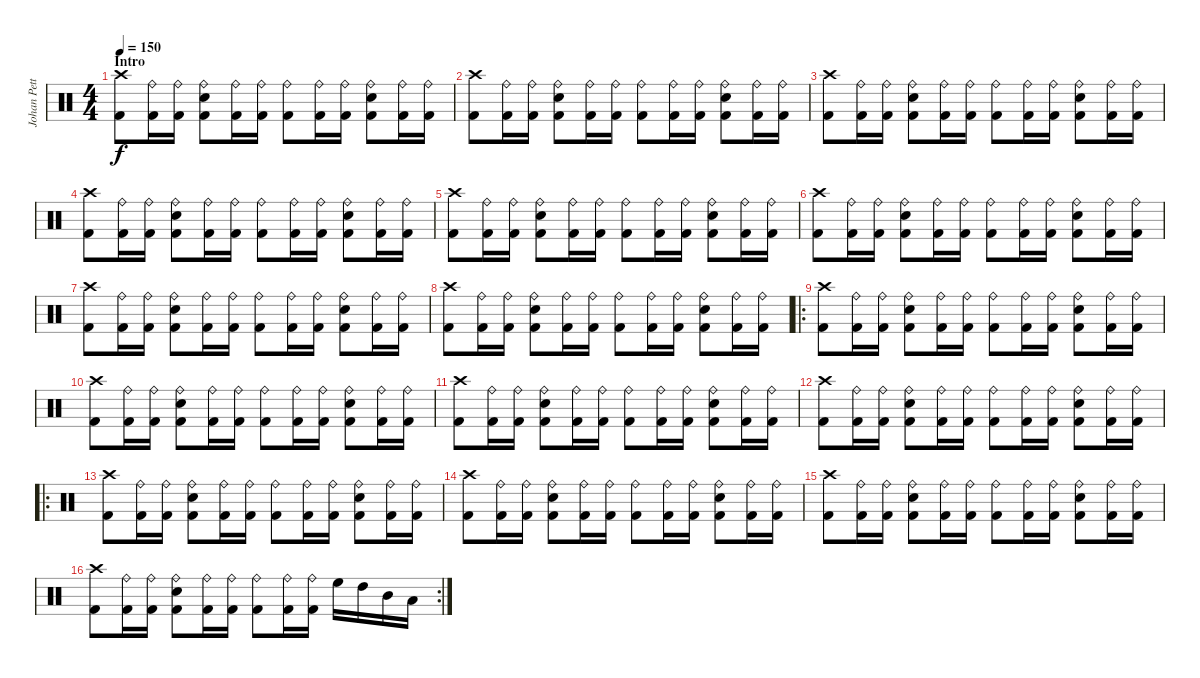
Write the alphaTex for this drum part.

\track ("Johan Petterson" "Johan Pett") {instrument percussion}
\staff {score}
\articulation defaults
\ts (4 4)
\section ("" "Intro")
\tempo 150
\clef neutral
\ks c
("Crash high (hit)" "Kick (hit) 2").8{dy f} ("Ride (bell)" "Kick (hit) 2").16 ("Ride (bell)" "Kick (hit) 2").16 ("Ride (bell)" "Snare (hit) 2" "Kick (hit) 2").8 ("Ride (bell)" "Kick (hit) 2").16 ("Ride (bell)" "Kick (hit) 2").16 ("Ride (bell)" "Kick (hit) 2").8 ("Ride (bell)" "Kick (hit) 2").16 ("Ride (bell)" "Kick (hit) 2").16 ("Ride (bell)" "Snare (hit) 2" "Kick (hit) 2").8 ("Ride (bell)" "Kick (hit) 2").16 ("Ride (bell)" "Kick (hit) 2").16 |
("Crash high (hit)" "Kick (hit) 2").8 ("Ride (bell)" "Kick (hit) 2").16 ("Ride (bell)" "Kick (hit) 2").16 ("Ride (bell)" "Snare (hit) 2" "Kick (hit) 2").8 ("Ride (bell)" "Kick (hit) 2").16 ("Ride (bell)" "Kick (hit) 2").16 ("Ride (bell)" "Kick (hit) 2").8 ("Ride (bell)" "Kick (hit) 2").16 ("Ride (bell)" "Kick (hit) 2").16 ("Ride (bell)" "Snare (hit) 2" "Kick (hit) 2").8 ("Ride (bell)" "Kick (hit) 2").16 ("Ride (bell)" "Kick (hit) 2").16 |
("Crash high (hit)" "Kick (hit) 2").8 ("Ride (bell)" "Kick (hit) 2").16 ("Ride (bell)" "Kick (hit) 2").16 ("Ride (bell)" "Snare (hit) 2" "Kick (hit) 2").8 ("Ride (bell)" "Kick (hit) 2").16 ("Ride (bell)" "Kick (hit) 2").16 ("Ride (bell)" "Kick (hit) 2").8 ("Ride (bell)" "Kick (hit) 2").16 ("Ride (bell)" "Kick (hit) 2").16 ("Ride (bell)" "Snare (hit) 2" "Kick (hit) 2").8 ("Ride (bell)" "Kick (hit) 2").16 ("Ride (bell)" "Kick (hit) 2").16 |
("Crash high (hit)" "Kick (hit) 2").8 ("Ride (bell)" "Kick (hit) 2").16 ("Ride (bell)" "Kick (hit) 2").16 ("Ride (bell)" "Snare (hit) 2" "Kick (hit) 2").8 ("Ride (bell)" "Kick (hit) 2").16 ("Ride (bell)" "Kick (hit) 2").16 ("Ride (bell)" "Kick (hit) 2").8 ("Ride (bell)" "Kick (hit) 2").16 ("Ride (bell)" "Kick (hit) 2").16 ("Ride (bell)" "Snare (hit) 2" "Kick (hit) 2").8 ("Ride (bell)" "Kick (hit) 2").16 ("Ride (bell)" "Kick (hit) 2").16 |
("Crash high (hit)" "Kick (hit) 2").8 ("Ride (bell)" "Kick (hit) 2").16 ("Ride (bell)" "Kick (hit) 2").16 ("Ride (bell)" "Snare (hit) 2" "Kick (hit) 2").8 ("Ride (bell)" "Kick (hit) 2").16 ("Ride (bell)" "Kick (hit) 2").16 ("Ride (bell)" "Kick (hit) 2").8 ("Ride (bell)" "Kick (hit) 2").16 ("Ride (bell)" "Kick (hit) 2").16 ("Ride (bell)" "Snare (hit) 2" "Kick (hit) 2").8 ("Ride (bell)" "Kick (hit) 2").16 ("Ride (bell)" "Kick (hit) 2").16 |
("Crash high (hit)" "Kick (hit) 2").8 ("Ride (bell)" "Kick (hit) 2").16 ("Ride (bell)" "Kick (hit) 2").16 ("Ride (bell)" "Snare (hit) 2" "Kick (hit) 2").8 ("Ride (bell)" "Kick (hit) 2").16 ("Ride (bell)" "Kick (hit) 2").16 ("Ride (bell)" "Kick (hit) 2").8 ("Ride (bell)" "Kick (hit) 2").16 ("Ride (bell)" "Kick (hit) 2").16 ("Ride (bell)" "Snare (hit) 2" "Kick (hit) 2").8 ("Ride (bell)" "Kick (hit) 2").16 ("Ride (bell)" "Kick (hit) 2").16 |
("Crash high (hit)" "Kick (hit) 2").8 ("Ride (bell)" "Kick (hit) 2").16 ("Ride (bell)" "Kick (hit) 2").16 ("Ride (bell)" "Snare (hit) 2" "Kick (hit) 2").8 ("Ride (bell)" "Kick (hit) 2").16 ("Ride (bell)" "Kick (hit) 2").16 ("Ride (bell)" "Kick (hit) 2").8 ("Ride (bell)" "Kick (hit) 2").16 ("Ride (bell)" "Kick (hit) 2").16 ("Ride (bell)" "Snare (hit) 2" "Kick (hit) 2").8 ("Ride (bell)" "Kick (hit) 2").16 ("Ride (bell)" "Kick (hit) 2").16 |
("Crash high (hit)" "Kick (hit) 2").8 ("Ride (bell)" "Kick (hit) 2").16 ("Ride (bell)" "Kick (hit) 2").16 ("Ride (bell)" "Snare (hit) 2" "Kick (hit) 2").8 ("Ride (bell)" "Kick (hit) 2").16 ("Ride (bell)" "Kick (hit) 2").16 ("Ride (bell)" "Kick (hit) 2").8 ("Ride (bell)" "Kick (hit) 2").16 ("Ride (bell)" "Kick (hit) 2").16 ("Ride (bell)" "Snare (hit) 2" "Kick (hit) 2").8 ("Ride (bell)" "Kick (hit) 2").16 ("Ride (bell)" "Kick (hit) 2").16 |
\ro
("Crash high (hit)" "Kick (hit) 2").8 ("Ride (bell)" "Kick (hit) 2").16 ("Ride (bell)" "Kick (hit) 2").16 ("Ride (bell)" "Snare (hit) 2" "Kick (hit) 2").8 ("Ride (bell)" "Kick (hit) 2").16 ("Ride (bell)" "Kick (hit) 2").16 ("Ride (bell)" "Kick (hit) 2").8 ("Ride (bell)" "Kick (hit) 2").16 ("Ride (bell)" "Kick (hit) 2").16 ("Ride (bell)" "Snare (hit) 2" "Kick (hit) 2").8 ("Ride (bell)" "Kick (hit) 2").16 ("Ride (bell)" "Kick (hit) 2").16 |
("Crash high (hit)" "Kick (hit) 2").8 ("Ride (bell)" "Kick (hit) 2").16 ("Ride (bell)" "Kick (hit) 2").16 ("Ride (bell)" "Snare (hit) 2" "Kick (hit) 2").8 ("Ride (bell)" "Kick (hit) 2").16 ("Ride (bell)" "Kick (hit) 2").16 ("Ride (bell)" "Kick (hit) 2").8 ("Ride (bell)" "Kick (hit) 2").16 ("Ride (bell)" "Kick (hit) 2").16 ("Ride (bell)" "Snare (hit) 2" "Kick (hit) 2").8 ("Ride (bell)" "Kick (hit) 2").16 ("Ride (bell)" "Kick (hit) 2").16 |
("Crash high (hit)" "Kick (hit) 2").8 ("Ride (bell)" "Kick (hit) 2").16 ("Ride (bell)" "Kick (hit) 2").16 ("Ride (bell)" "Snare (hit) 2" "Kick (hit) 2").8 ("Ride (bell)" "Kick (hit) 2").16 ("Ride (bell)" "Kick (hit) 2").16 ("Ride (bell)" "Kick (hit) 2").8 ("Ride (bell)" "Kick (hit) 2").16 ("Ride (bell)" "Kick (hit) 2").16 ("Ride (bell)" "Snare (hit) 2" "Kick (hit) 2").8 ("Ride (bell)" "Kick (hit) 2").16 ("Ride (bell)" "Kick (hit) 2").16 |
("Crash high (hit)" "Kick (hit) 2").8 ("Ride (bell)" "Kick (hit) 2").16 ("Ride (bell)" "Kick (hit) 2").16 ("Ride (bell)" "Snare (hit) 2" "Kick (hit) 2").8 ("Ride (bell)" "Kick (hit) 2").16 ("Ride (bell)" "Kick (hit) 2").16 ("Ride (bell)" "Kick (hit) 2").8 ("Ride (bell)" "Kick (hit) 2").16 ("Ride (bell)" "Kick (hit) 2").16 ("Ride (bell)" "Snare (hit) 2" "Kick (hit) 2").8 ("Ride (bell)" "Kick (hit) 2").16 ("Ride (bell)" "Kick (hit) 2").16 |
\ro
("Crash high (hit)" "Kick (hit) 2").8 ("Ride (bell)" "Kick (hit) 2").16 ("Ride (bell)" "Kick (hit) 2").16 ("Ride (bell)" "Snare (hit) 2" "Kick (hit) 2").8 ("Ride (bell)" "Kick (hit) 2").16 ("Ride (bell)" "Kick (hit) 2").16 ("Ride (bell)" "Kick (hit) 2").8 ("Ride (bell)" "Kick (hit) 2").16 ("Ride (bell)" "Kick (hit) 2").16 ("Ride (bell)" "Snare (hit) 2" "Kick (hit) 2").8 ("Ride (bell)" "Kick (hit) 2").16 ("Ride (bell)" "Kick (hit) 2").16 |
("Crash high (hit)" "Kick (hit) 2").8 ("Ride (bell)" "Kick (hit) 2").16 ("Ride (bell)" "Kick (hit) 2").16 ("Ride (bell)" "Snare (hit) 2" "Kick (hit) 2").8 ("Ride (bell)" "Kick (hit) 2").16 ("Ride (bell)" "Kick (hit) 2").16 ("Ride (bell)" "Kick (hit) 2").8 ("Ride (bell)" "Kick (hit) 2").16 ("Ride (bell)" "Kick (hit) 2").16 ("Ride (bell)" "Snare (hit) 2" "Kick (hit) 2").8 ("Ride (bell)" "Kick (hit) 2").16 ("Ride (bell)" "Kick (hit) 2").16 |
("Crash high (hit)" "Kick (hit) 2").8 ("Ride (bell)" "Kick (hit) 2").16 ("Ride (bell)" "Kick (hit) 2").16 ("Ride (bell)" "Snare (hit) 2" "Kick (hit) 2").8 ("Ride (bell)" "Kick (hit) 2").16 ("Ride (bell)" "Kick (hit) 2").16 ("Ride (bell)" "Kick (hit) 2").8 ("Ride (bell)" "Kick (hit) 2").16 ("Ride (bell)" "Kick (hit) 2").16 ("Ride (bell)" "Snare (hit) 2" "Kick (hit) 2").8 ("Ride (bell)" "Kick (hit) 2").16 ("Ride (bell)" "Kick (hit) 2").16 |
\rc 2
("Crash high (hit)" "Kick (hit) 2").8 ("Ride (bell)" "Kick (hit) 2").16 ("Ride (bell)" "Kick (hit) 2").16 ("Ride (bell)" "Snare (hit) 2" "Kick (hit) 2").8 ("Ride (bell)" "Kick (hit) 2").16 ("Ride (bell)" "Kick (hit) 2").16 ("Ride (bell)" "Kick (hit) 2").8 ("Ride (bell)" "Kick (hit) 2").16 ("Ride (bell)" "Kick (hit) 2").16 "High Floor Tom (hit)".16 "High Tom (hit)".16 "Mid Tom (hit)".16 "Low Tom (hit)".16
